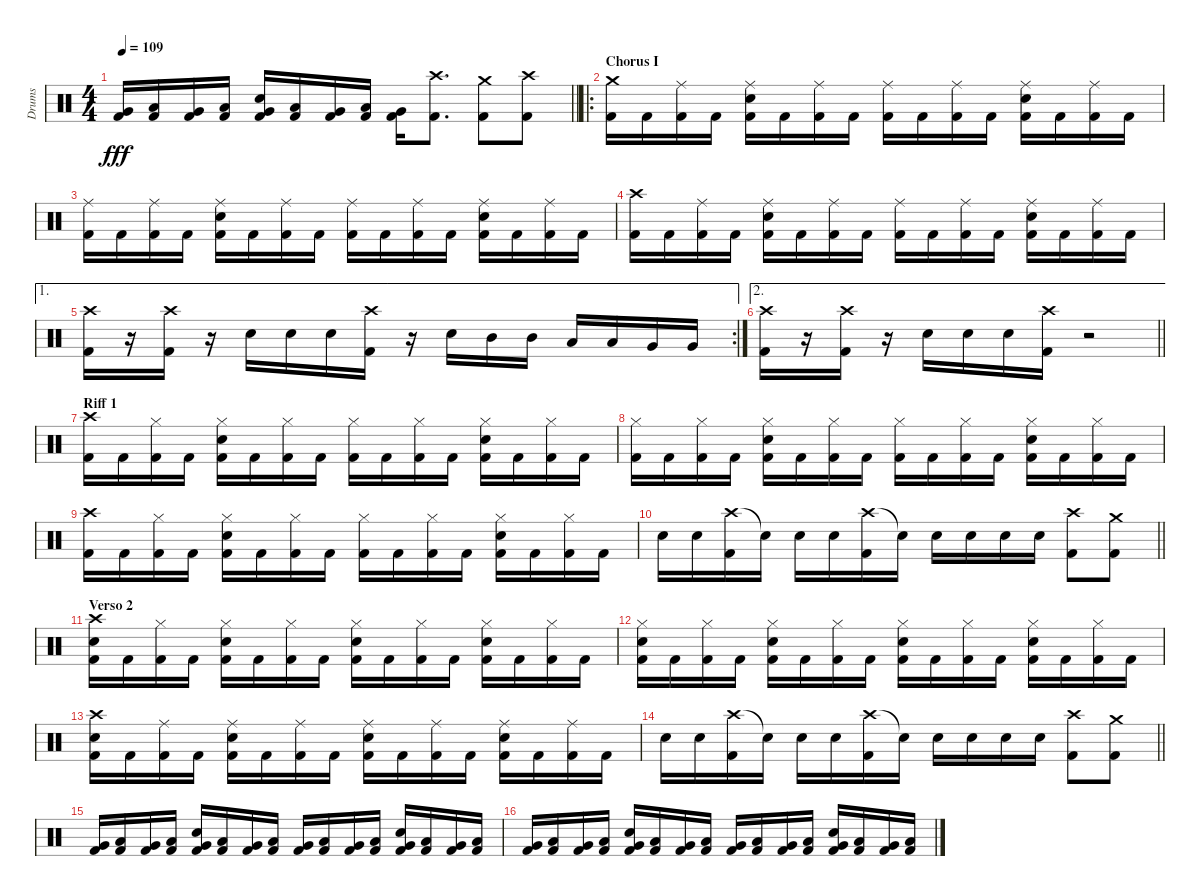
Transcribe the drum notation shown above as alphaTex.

\track ("Drums" "Drums") {instrument percussion}
\staff {score}
\articulation defaults
\ts (4 4)
\tempo 109
\clef neutral
\barLineRight lightlight
\ks c
("Very Low Tom (hit)" "Kick (hit) 2").16{dy fff} ("Low Tom (hit)" "Kick (hit) 2").16 ("Very Low Tom (hit)" "Kick (hit) 2").16 ("Low Tom (hit)" "Kick (hit) 2").16 ("Electric Snare (hit)" "Very Low Tom (hit)" "Kick (hit) 2").16 ("Low Tom (hit)" "Kick (hit) 2").16 ("Very Low Tom (hit)" "Kick (hit) 2").16 ("Low Tom (hit)" "Kick (hit) 2").16 ("Very Low Tom (hit)" "Kick (hit) 2").16 ("Crash high (hit)" "Kick (hit) 2").8{d} ("Crash medium (hit)" "Kick (hit) 2").8 ("Crash high (hit)" "Kick (hit) 2").8 |
\ro
\section ("" "Chorus I")
("Crash medium (hit)" "Kick (hit) 2").16 "Kick (hit) 2".16 ("Ride (middle)" "Kick (hit) 2").16 "Kick (hit) 2".16 ("Ride (middle)" "Electric Snare (hit)" "Kick (hit) 2").16 "Kick (hit) 2".16 ("Ride (middle)" "Kick (hit) 2").16 "Kick (hit) 2".16 ("Ride (middle)" "Kick (hit) 2").16 "Kick (hit) 2".16 ("Ride (middle)" "Kick (hit) 2").16 "Kick (hit) 2".16 ("Ride (middle)" "Electric Snare (hit)" "Kick (hit) 2").16 "Kick (hit) 2".16 ("Ride (middle)" "Kick (hit) 2").16 "Kick (hit) 2".16 |
("Ride (middle)" "Kick (hit) 2").16 "Kick (hit) 2".16 ("Ride (middle)" "Kick (hit) 2").16 "Kick (hit) 2".16 ("Ride (middle)" "Electric Snare (hit)" "Kick (hit) 2").16 "Kick (hit) 2".16 ("Ride (middle)" "Kick (hit) 2").16 "Kick (hit) 2".16 ("Ride (middle)" "Kick (hit) 2").16 "Kick (hit) 2".16 ("Ride (middle)" "Kick (hit) 2").16 "Kick (hit) 2".16 ("Ride (middle)" "Electric Snare (hit)" "Kick (hit) 2").16 "Kick (hit) 2".16 ("Ride (middle)" "Kick (hit) 2").16 "Kick (hit) 2".16 |
("Crash high (hit)" "Kick (hit) 2").16 "Kick (hit) 2".16 ("Ride (middle)" "Kick (hit) 2").16 "Kick (hit) 2".16 ("Ride (middle)" "Electric Snare (hit)" "Kick (hit) 2").16 "Kick (hit) 2".16 ("Ride (middle)" "Kick (hit) 2").16 "Kick (hit) 2".16 ("Ride (middle)" "Kick (hit) 2").16 "Kick (hit) 2".16 ("Ride (middle)" "Kick (hit) 2").16 "Kick (hit) 2".16 ("Ride (middle)" "Electric Snare (hit)" "Kick (hit) 2").16 "Kick (hit) 2".16 ("Ride (middle)" "Kick (hit) 2").16 "Kick (hit) 2".16 |
\ae 1
\rc 2
("Crash high (hit)" "Kick (hit) 2").16 r.16 ("Crash high (hit)" "Kick (hit) 2").16 r.16 "Electric Snare (hit)".16 "Electric Snare (hit)".16 "Electric Snare (hit)".16 ("Crash high (hit)" "Kick (hit) 2").16 r.16 "Electric Snare (hit)".16 "Mid Tom (hit)".16 "Mid Tom (hit)".16 "Low Tom (hit)".16 "Low Tom (hit)".16 "Very Low Tom (hit)".16 "Very Low Tom (hit)".16 |
\ae 2
\barLineRight lightlight
("Crash high (hit)" "Kick (hit) 2").16 r.16 ("Crash high (hit)" "Kick (hit) 2").16 r.16 "Electric Snare (hit)".16 "Electric Snare (hit)".16 "Electric Snare (hit)".16 ("Crash high (hit)" "Kick (hit) 2").16 r.2{volume 0} |
\section ("" "Riff 1")
("Crash high (hit)" "Kick (hit) 2").16{volume 16} "Kick (hit) 2".16 ("Hi-Hat (closed)" "Kick (hit) 2").16 "Kick (hit) 2".16 ("Hi-Hat (closed)" "Electric Snare (hit)" "Kick (hit) 2").16 "Kick (hit) 2".16 ("Hi-Hat (closed)" "Kick (hit) 2").16 "Kick (hit) 2".16 ("Hi-Hat (closed)" "Kick (hit) 2").16 "Kick (hit) 2".16 ("Hi-Hat (closed)" "Kick (hit) 2").16 "Kick (hit) 2".16 ("Hi-Hat (closed)" "Electric Snare (hit)" "Kick (hit) 2").16 "Kick (hit) 2".16 ("Hi-Hat (closed)" "Kick (hit) 2").16 "Kick (hit) 2".16 |
("Hi-Hat (closed)" "Kick (hit) 2").16 "Kick (hit) 2".16 ("Hi-Hat (closed)" "Kick (hit) 2").16 "Kick (hit) 2".16 ("Hi-Hat (closed)" "Electric Snare (hit)" "Kick (hit) 2").16 "Kick (hit) 2".16 ("Hi-Hat (closed)" "Kick (hit) 2").16 "Kick (hit) 2".16 ("Hi-Hat (closed)" "Kick (hit) 2").16 "Kick (hit) 2".16 ("Hi-Hat (closed)" "Kick (hit) 2").16 "Kick (hit) 2".16 ("Hi-Hat (closed)" "Electric Snare (hit)" "Kick (hit) 2").16 "Kick (hit) 2".16 ("Hi-Hat (closed)" "Kick (hit) 2").16 "Kick (hit) 2".16 |
("Crash high (hit)" "Kick (hit) 2").16 "Kick (hit) 2".16 ("Hi-Hat (closed)" "Kick (hit) 2").16 "Kick (hit) 2".16 ("Hi-Hat (closed)" "Electric Snare (hit)" "Kick (hit) 2").16 "Kick (hit) 2".16 ("Hi-Hat (closed)" "Kick (hit) 2").16 "Kick (hit) 2".16 ("Hi-Hat (closed)" "Kick (hit) 2").16 "Kick (hit) 2".16 ("Hi-Hat (closed)" "Kick (hit) 2").16 "Kick (hit) 2".16 ("Hi-Hat (closed)" "Electric Snare (hit)" "Kick (hit) 2").16 "Kick (hit) 2".16 ("Hi-Hat (closed)" "Kick (hit) 2").16 "Kick (hit) 2".16 |
\barLineRight lightlight "Electric Snare (hit)".16 "Electric Snare (hit)".16
("Crash high (hit)" "Kick (hit) 2").16 "Electric Snare (hit)"{t}.16 "Electric Snare (hit)".16 "Electric Snare (hit)".16 ("Crash high (hit)" "Kick (hit) 2").16 "Electric Snare (hit)"{t}.16 "Electric Snare (hit)".16 "Electric Snare (hit)".16 "Electric Snare (hit)".16 "Electric Snare (hit)".16 ("Crash high (hit)" "Kick (hit) 2").8 ("Crash medium (hit)" "Kick (hit) 2").8 |
\section ("" "Verso 2")
("Crash high (hit)" "Electric Snare (hit)" "Kick (hit) 2").16 "Kick (hit) 2".16 ("Hi-Hat (closed)" "Kick (hit) 2").16 "Kick (hit) 2".16 ("Hi-Hat (closed)" "Electric Snare (hit)" "Kick (hit) 2").16 "Kick (hit) 2".16 ("Hi-Hat (closed)" "Kick (hit) 2").16 "Kick (hit) 2".16 ("Hi-Hat (closed)" "Electric Snare (hit)" "Kick (hit) 2").16 "Kick (hit) 2".16 ("Hi-Hat (closed)" "Kick (hit) 2").16 "Kick (hit) 2".16 ("Hi-Hat (closed)" "Electric Snare (hit)" "Kick (hit) 2").16 "Kick (hit) 2".16 ("Hi-Hat (closed)" "Kick (hit) 2").16 "Kick (hit) 2".16 |
("Hi-Hat (closed)" "Electric Snare (hit)" "Kick (hit) 2").16 "Kick (hit) 2".16 ("Hi-Hat (closed)" "Kick (hit) 2").16 "Kick (hit) 2".16 ("Hi-Hat (closed)" "Electric Snare (hit)" "Kick (hit) 2").16 "Kick (hit) 2".16 ("Hi-Hat (closed)" "Kick (hit) 2").16 "Kick (hit) 2".16 ("Hi-Hat (closed)" "Electric Snare (hit)" "Kick (hit) 2").16 "Kick (hit) 2".16 ("Hi-Hat (closed)" "Kick (hit) 2").16 "Kick (hit) 2".16 ("Hi-Hat (closed)" "Electric Snare (hit)" "Kick (hit) 2").16 "Kick (hit) 2".16 ("Hi-Hat (closed)" "Kick (hit) 2").16 "Kick (hit) 2".16 |
("Crash high (hit)" "Electric Snare (hit)" "Kick (hit) 2").16 "Kick (hit) 2".16 ("Ride (middle)" "Kick (hit) 2").16 "Kick (hit) 2".16 ("Ride (middle)" "Electric Snare (hit)" "Kick (hit) 2").16 "Kick (hit) 2".16 ("Ride (middle)" "Kick (hit) 2").16 "Kick (hit) 2".16 ("Ride (middle)" "Electric Snare (hit)" "Kick (hit) 2").16 "Kick (hit) 2".16 ("Ride (middle)" "Kick (hit) 2").16 "Kick (hit) 2".16 ("Ride (middle)" "Electric Snare (hit)" "Kick (hit) 2").16 "Kick (hit) 2".16 ("Ride (middle)" "Kick (hit) 2").16 "Kick (hit) 2".16 |
\barLineRight lightlight "Electric Snare (hit)".16 "Electric Snare (hit)".16
("Crash high (hit)" "Kick (hit) 2").16 "Electric Snare (hit)"{t}.16 "Electric Snare (hit)".16 "Electric Snare (hit)".16 ("Crash high (hit)" "Kick (hit) 2").16 "Electric Snare (hit)"{t}.16 "Electric Snare (hit)".16 "Electric Snare (hit)".16 "Electric Snare (hit)".16 "Electric Snare (hit)".16 ("Crash high (hit)" "Kick (hit) 2").8 ("Crash medium (hit)" "Kick (hit) 2").8 |
("Very Low Tom (hit)" "Kick (hit) 2").16 ("Low Tom (hit)" "Kick (hit) 2").16 ("Very Low Tom (hit)" "Kick (hit) 2").16 ("Low Tom (hit)" "Kick (hit) 2").16 ("Electric Snare (hit)" "Very Low Tom (hit)" "Kick (hit) 2").16 ("Low Tom (hit)" "Kick (hit) 2").16 ("Very Low Tom (hit)" "Kick (hit) 2").16 ("Low Tom (hit)" "Kick (hit) 2").16 ("Very Low Tom (hit)" "Kick (hit) 2").16 ("Low Tom (hit)" "Kick (hit) 2").16 ("Very Low Tom (hit)" "Kick (hit) 2").16 ("Low Tom (hit)" "Kick (hit) 2").16 ("Electric Snare (hit)" "Very Low Tom (hit)" "Kick (hit) 2").16 ("Low Tom (hit)" "Kick (hit) 2").16 ("Very Low Tom (hit)" "Kick (hit) 2").16 ("Low Tom (hit)" "Kick (hit) 2").16 |
("Very Low Tom (hit)" "Kick (hit) 2").16 ("Low Tom (hit)" "Kick (hit) 2").16 ("Very Low Tom (hit)" "Kick (hit) 2").16 ("Low Tom (hit)" "Kick (hit) 2").16 ("Electric Snare (hit)" "Very Low Tom (hit)" "Kick (hit) 2").16 ("Low Tom (hit)" "Kick (hit) 2").16 ("Very Low Tom (hit)" "Kick (hit) 2").16 ("Low Tom (hit)" "Kick (hit) 2").16 ("Very Low Tom (hit)" "Kick (hit) 2").16 ("Low Tom (hit)" "Kick (hit) 2").16 ("Very Low Tom (hit)" "Kick (hit) 2").16 ("Low Tom (hit)" "Kick (hit) 2").16 ("Electric Snare (hit)" "Very Low Tom (hit)" "Kick (hit) 2").16 ("Low Tom (hit)" "Kick (hit) 2").16 ("Very Low Tom (hit)" "Kick (hit) 2").16 ("Low Tom (hit)" "Kick (hit) 2").16
